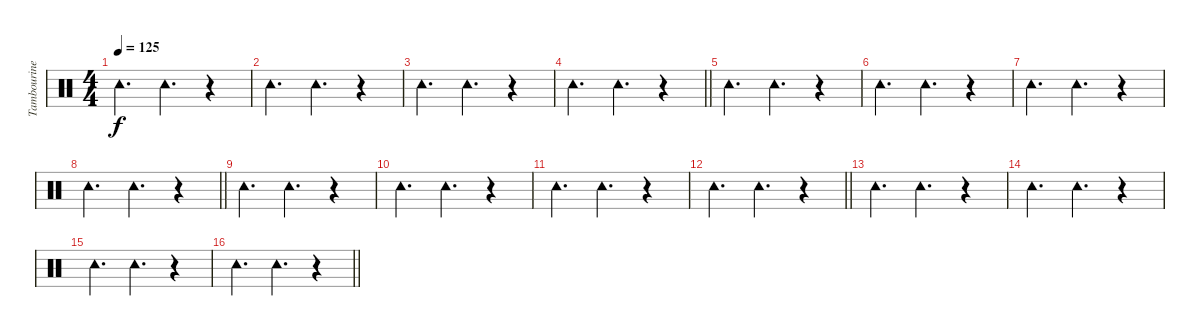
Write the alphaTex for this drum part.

\track ("Tambourine" "Tambourine") {instrument percussion}
\staff {score}
\articulation defaults
\ts (4 4)
\tempo 125
\clef neutral
\ks c "Tambourine (hit)".4{d dy f} "Tambourine (hit)".4{d}
r.4 |
"Tambourine (hit)".4{d} "Tambourine (hit)".4{d} r.4 |
"Tambourine (hit)".4{d} "Tambourine (hit)".4{d} r.4 |
\barLineRight lightlight "Tambourine (hit)".4{d} "Tambourine (hit)".4{d}
r.4 |
"Tambourine (hit)".4{d} "Tambourine (hit)".4{d} r.4 |
"Tambourine (hit)".4{d} "Tambourine (hit)".4{d} r.4 |
"Tambourine (hit)".4{d} "Tambourine (hit)".4{d} r.4 |
\barLineRight lightlight "Tambourine (hit)".4{d} "Tambourine (hit)".4{d}
r.4 |
"Tambourine (hit)".4{d} "Tambourine (hit)".4{d} r.4 |
"Tambourine (hit)".4{d} "Tambourine (hit)".4{d} r.4 |
"Tambourine (hit)".4{d} "Tambourine (hit)".4{d} r.4 |
\barLineRight lightlight "Tambourine (hit)".4{d} "Tambourine (hit)".4{d}
r.4 |
"Tambourine (hit)".4{d} "Tambourine (hit)".4{d} r.4 |
"Tambourine (hit)".4{d} "Tambourine (hit)".4{d} r.4 |
"Tambourine (hit)".4{d} "Tambourine (hit)".4{d} r.4 |
\barLineRight lightlight "Tambourine (hit)".4{d} "Tambourine (hit)".4{d}
r.4
